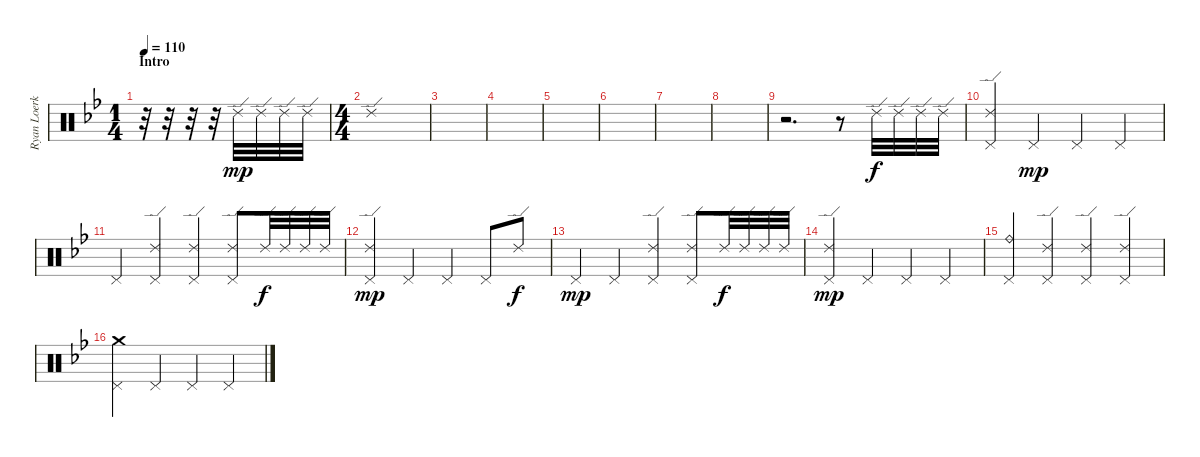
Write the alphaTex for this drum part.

\track ("Ryan Loerke" "Ryan Loerk") {instrument percussion}
\staff {score}
\articulation defaults
\ts (1 4)
\section ("" "Intro")
\tempo 110
\clef neutral
\ks gminor
r.32{dy mp} r.32 r.32 r.32 "Ride (edge) 2".32 "Ride (edge) 2".32 "Ride (edge) 2".32 "Ride (edge) 2".32 |
\ts (4 4)
"Ride (edge) 2".1 |
|
|
|
|
|
|
r.2{d} r.8 "Ride (edge) 2".32{dy f} "Ride (edge) 2".32 "Ride (edge) 2".32 "Ride (edge) 2".32 |
("Ride (edge) 2" "Pedal Hi-Hat (hit)").4 "Pedal Hi-Hat (hit)".4{dy mp} "Pedal Hi-Hat (hit)".4 "Pedal Hi-Hat (hit)".4 |
"Pedal Hi-Hat (hit)".4 ("Ride (edge) 2" "Pedal Hi-Hat (hit)").4 ("Ride (edge) 2" "Pedal Hi-Hat (hit)").4 ("Ride (edge) 2" "Pedal Hi-Hat (hit)").8 "Ride (edge) 2".32{dy f} "Ride (edge) 2".32 "Ride (edge) 2".32 "Ride (edge) 2".32 |
("Ride (edge) 2" "Pedal Hi-Hat (hit)").4{dy mp} "Pedal Hi-Hat (hit)".4 "Pedal Hi-Hat (hit)".4 "Pedal Hi-Hat (hit)".8 "Ride (edge) 2".8{dy f} |
"Pedal Hi-Hat (hit)".4{dy mp} "Pedal Hi-Hat (hit)".4 ("Ride (edge) 2" "Pedal Hi-Hat (hit)").4 ("Ride (edge) 2" "Pedal Hi-Hat (hit)").8 "Ride (edge) 2".32{dy f} "Ride (edge) 2".32 "Ride (edge) 2".32 "Ride (edge) 2".32 |
("Ride (edge) 2" "Pedal Hi-Hat (hit)").4{dy mp} "Pedal Hi-Hat (hit)".4 "Pedal Hi-Hat (hit)".4 "Pedal Hi-Hat (hit)".4 |
("Ride (bell)" "Pedal Hi-Hat (hit)").4 ("Ride (edge) 2" "Pedal Hi-Hat (hit)").4 ("Ride (edge) 2" "Pedal Hi-Hat (hit)").4 ("Ride (edge) 2" "Pedal Hi-Hat (hit)").4 |
("Crash medium (hit)" "Pedal Hi-Hat (hit)").4 "Pedal Hi-Hat (hit)".4 "Pedal Hi-Hat (hit)".4 "Pedal Hi-Hat (hit)".4
